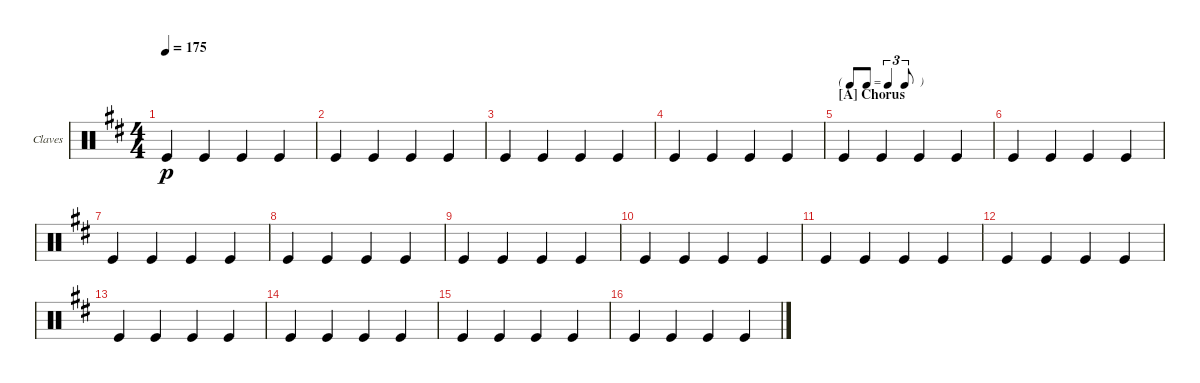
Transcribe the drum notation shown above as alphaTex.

\defaultSystemsLayout 4
\bracketExtendMode groupsimilarinstruments
\firstSystemTrackNameOrientation horizontal
\otherSystemsTrackNameOrientation horizontal
\track ("Claves" "Claves") {instrument percussion}
\staff {score}
\articulation defaults
\ts (4 4)
\tempo 175
\clef neutral
\scale
0.333333
\ks d "Kick (hit)".4{dy p} "Kick (hit)".4 "Kick (hit)".4 "Kick (hit)".4
|
\scale
0.333333 "Kick (hit)".4 "Kick (hit)".4 "Kick (hit)".4 "Kick (hit)".4 |
\scale
0.333333 "Kick (hit)".4 "Kick (hit)".4 "Kick (hit)".4 "Kick (hit)".4 |
\scale
0.333333 "Kick (hit)".4 "Kick (hit)".4 "Kick (hit)".4 "Kick (hit)".4 |
\tf triplet8th
\section ("A" "Chorus")
\scale
0.333333 "Kick (hit)".4 "Kick (hit)".4 "Kick (hit)".4 "Kick (hit)".4 |
"Kick (hit)".4 "Kick (hit)".4 "Kick (hit)".4 "Kick (hit)".4 |
"Kick (hit)".4 "Kick (hit)".4 "Kick (hit)".4 "Kick (hit)".4 |
"Kick (hit)".4 "Kick (hit)".4 "Kick (hit)".4 "Kick (hit)".4 |
"Kick (hit)".4 "Kick (hit)".4 "Kick (hit)".4 "Kick (hit)".4 |
"Kick (hit)".4 "Kick (hit)".4 "Kick (hit)".4 "Kick (hit)".4 |
"Kick (hit)".4 "Kick (hit)".4 "Kick (hit)".4 "Kick (hit)".4 |
"Kick (hit)".4 "Kick (hit)".4 "Kick (hit)".4 "Kick (hit)".4 |
"Kick (hit)".4 "Kick (hit)".4 "Kick (hit)".4 "Kick (hit)".4 |
"Kick (hit)".4 "Kick (hit)".4 "Kick (hit)".4 "Kick (hit)".4 |
"Kick (hit)".4 "Kick (hit)".4 "Kick (hit)".4 "Kick (hit)".4 |
"Kick (hit)".4 "Kick (hit)".4 "Kick (hit)".4 "Kick (hit)".4
